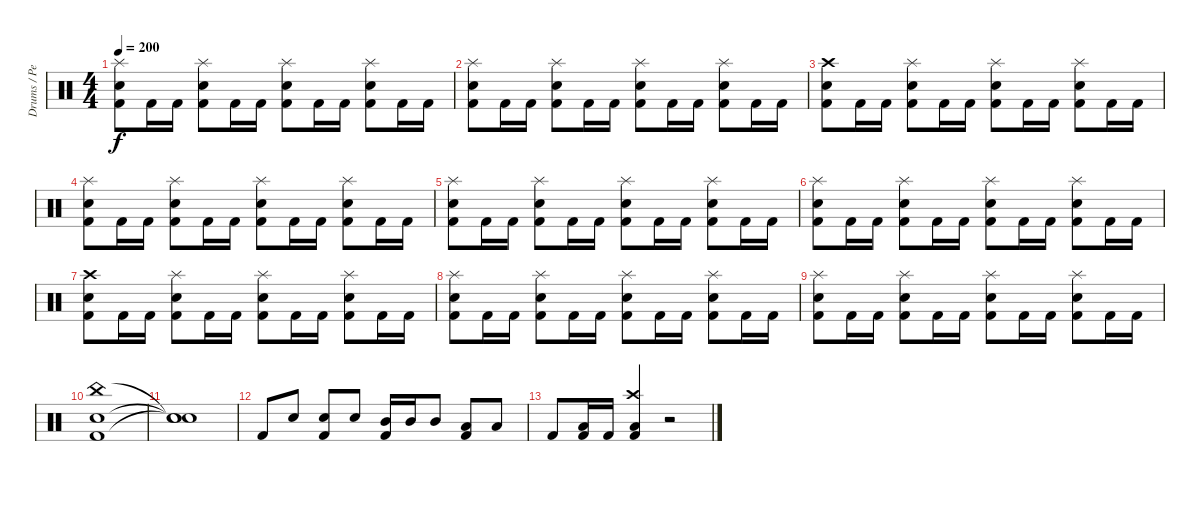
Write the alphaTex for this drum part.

\track ("Drums / Percussion" "Drums / Pe") {instrument percussion}
\staff {score}
\articulation defaults
\ts (4 4)
\tempo 200
\clef neutral
\ks c
("Splash (hit)" "Electric Snare (hit)" "Kick (hit) 2").8{dy f} "Kick (hit) 2".16 "Kick (hit) 2".16 ("Splash (hit)" "Electric Snare (hit)" "Kick (hit) 2").8 "Kick (hit) 2".16 "Kick (hit) 2".16 ("Splash (hit)" "Electric Snare (hit)" "Kick (hit) 2").8 "Kick (hit) 2".16 "Kick (hit) 2".16 ("Splash (hit)" "Electric Snare (hit)" "Kick (hit) 2").8 "Kick (hit) 2".16 "Kick (hit) 2".16 |
("Splash (hit)" "Electric Snare (hit)" "Kick (hit) 2").8 "Kick (hit) 2".16 "Kick (hit) 2".16 ("Splash (hit)" "Electric Snare (hit)" "Kick (hit) 2").8 "Kick (hit) 2".16 "Kick (hit) 2".16 ("Splash (hit)" "Electric Snare (hit)" "Kick (hit) 2").8 "Kick (hit) 2".16 "Kick (hit) 2".16 ("Splash (hit)" "Electric Snare (hit)" "Kick (hit) 2").8 "Kick (hit) 2".16 "Kick (hit) 2".16 |
("Crash high (hit)" "Electric Snare (hit)" "Kick (hit) 2").8 "Kick (hit) 2".16 "Kick (hit) 2".16 ("Splash (hit)" "Electric Snare (hit)" "Kick (hit) 2").8 "Kick (hit) 2".16 "Kick (hit) 2".16 ("Splash (hit)" "Electric Snare (hit)" "Kick (hit) 2").8 "Kick (hit) 2".16 "Kick (hit) 2".16 ("Splash (hit)" "Electric Snare (hit)" "Kick (hit) 2").8 "Kick (hit) 2".16 "Kick (hit) 2".16 |
("Splash (hit)" "Electric Snare (hit)" "Kick (hit) 2").8 "Kick (hit) 2".16 "Kick (hit) 2".16 ("Splash (hit)" "Electric Snare (hit)" "Kick (hit) 2").8 "Kick (hit) 2".16 "Kick (hit) 2".16 ("Splash (hit)" "Electric Snare (hit)" "Kick (hit) 2").8 "Kick (hit) 2".16 "Kick (hit) 2".16 ("Splash (hit)" "Electric Snare (hit)" "Kick (hit) 2").8 "Kick (hit) 2".16 "Kick (hit) 2".16 |
("Splash (hit)" "Electric Snare (hit)" "Kick (hit) 2").8 "Kick (hit) 2".16 "Kick (hit) 2".16 ("Splash (hit)" "Electric Snare (hit)" "Kick (hit) 2").8 "Kick (hit) 2".16 "Kick (hit) 2".16 ("Splash (hit)" "Electric Snare (hit)" "Kick (hit) 2").8 "Kick (hit) 2".16 "Kick (hit) 2".16 ("Splash (hit)" "Electric Snare (hit)" "Kick (hit) 2").8 "Kick (hit) 2".16 "Kick (hit) 2".16 |
("Splash (hit)" "Electric Snare (hit)" "Kick (hit) 2").8 "Kick (hit) 2".16 "Kick (hit) 2".16 ("Splash (hit)" "Electric Snare (hit)" "Kick (hit) 2").8 "Kick (hit) 2".16 "Kick (hit) 2".16 ("Splash (hit)" "Electric Snare (hit)" "Kick (hit) 2").8 "Kick (hit) 2".16 "Kick (hit) 2".16 ("Splash (hit)" "Electric Snare (hit)" "Kick (hit) 2").8 "Kick (hit) 2".16 "Kick (hit) 2".16 |
("Crash high (hit)" "Electric Snare (hit)" "Kick (hit) 2").8 "Kick (hit) 2".16 "Kick (hit) 2".16 ("Splash (hit)" "Electric Snare (hit)" "Kick (hit) 2").8 "Kick (hit) 2".16 "Kick (hit) 2".16 ("Splash (hit)" "Electric Snare (hit)" "Kick (hit) 2").8 "Kick (hit) 2".16 "Kick (hit) 2".16 ("Splash (hit)" "Electric Snare (hit)" "Kick (hit) 2").8 "Kick (hit) 2".16 "Kick (hit) 2".16 |
("Splash (hit)" "Electric Snare (hit)" "Kick (hit) 2").8 "Kick (hit) 2".16 "Kick (hit) 2".16 ("Splash (hit)" "Electric Snare (hit)" "Kick (hit) 2").8 "Kick (hit) 2".16 "Kick (hit) 2".16 ("Splash (hit)" "Electric Snare (hit)" "Kick (hit) 2").8 "Kick (hit) 2".16 "Kick (hit) 2".16 ("Splash (hit)" "Electric Snare (hit)" "Kick (hit) 2").8 "Kick (hit) 2".16 "Kick (hit) 2".16 |
("Splash (hit)" "Electric Snare (hit)" "Kick (hit) 2").8 "Kick (hit) 2".16 "Kick (hit) 2".16 ("Splash (hit)" "Electric Snare (hit)" "Kick (hit) 2").8 "Kick (hit) 2".16 "Kick (hit) 2".16 ("Splash (hit)" "Electric Snare (hit)" "Kick (hit) 2").8 "Kick (hit) 2".16 "Kick (hit) 2".16 ("Splash (hit)" "Electric Snare (hit)" "Kick (hit) 2").8 "Kick (hit) 2".16 "Kick (hit) 2".16 |
("China (hit)" "Electric Snare (hit)" "Kick (hit) 2").1 |
("Snare (hit)"{t} "Snare (hit)"{t} "Snare (hit)"{t}).1 |
"Kick (hit) 2".8 "Electric Snare (hit)".8 ("Electric Snare (hit)" "Kick (hit) 2").8 "Electric Snare (hit)".8 ("Mid Tom (hit)" "Kick (hit) 2").16 "Mid Tom (hit)".16 "Mid Tom (hit)".8 ("Low Tom (hit)" "Kick (hit) 2").8 "Low Tom (hit)".8 |
"Kick (hit) 2".8 ("Low Floor Tom (hit)" "Kick (hit) 2").16 "Kick (hit) 2".16 ("Crash high (hit)" "Low Floor Tom (hit)" "Kick (hit) 2").4 r.2
